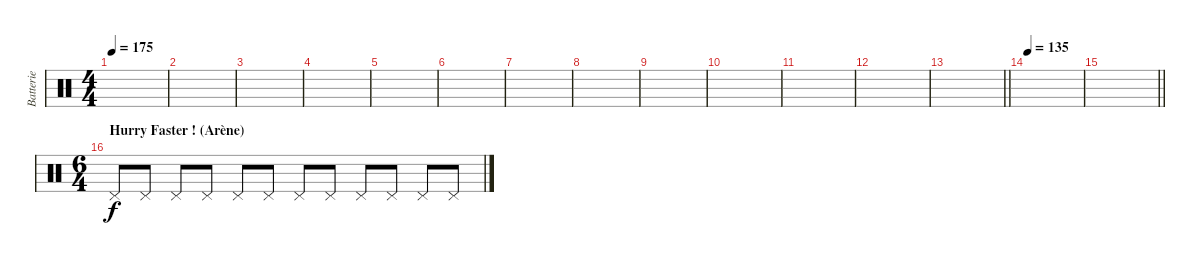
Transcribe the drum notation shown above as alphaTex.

\track ("Batterie" "Batterie") {instrument percussion}
\staff {score}
\articulation defaults
\ts (4 4)
\tempo 175
\clef neutral
\ks c
|
|
|
|
|
|
|
|
|
|
|
|
\barLineRight lightlight
|
\tempo 135
|
\barLineRight lightlight
|
\ts (6 4)
\section ("" "Hurry Faster ! (Arène) ")
"Pedal Hi-Hat (hit)".8 "Pedal Hi-Hat (hit)".8 "Pedal Hi-Hat (hit)".8 "Pedal Hi-Hat (hit)".8 "Pedal Hi-Hat (hit)".8 "Pedal Hi-Hat (hit)".8 "Pedal Hi-Hat (hit)".8 "Pedal Hi-Hat (hit)".8 "Pedal Hi-Hat (hit)".8 "Pedal Hi-Hat (hit)".8 "Pedal Hi-Hat (hit)".8 "Pedal Hi-Hat (hit)".8
